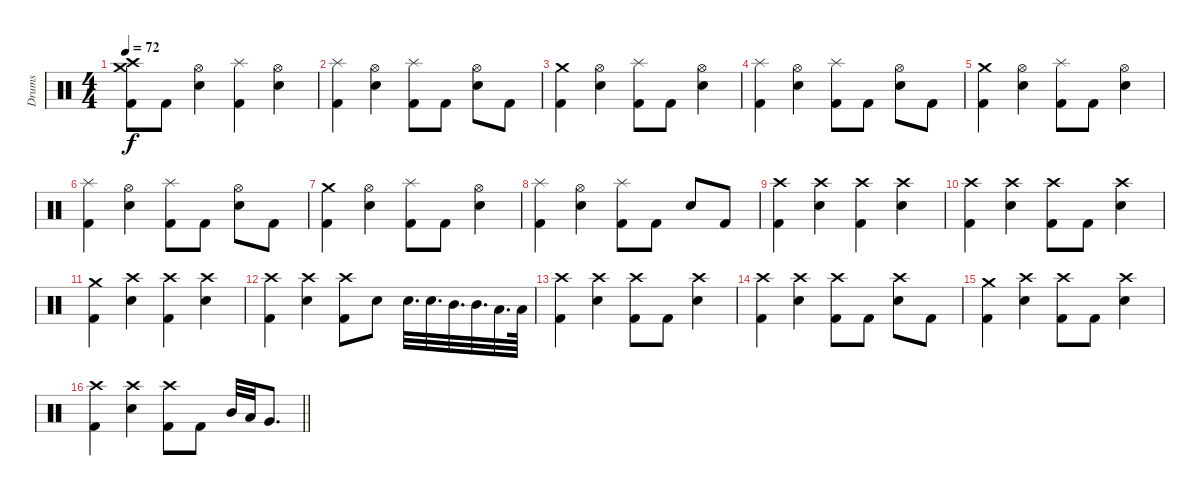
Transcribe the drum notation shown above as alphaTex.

\track ("Drums" "Drums") {instrument percussion}
\staff {score}
\articulation defaults
\ts (4 4)
\tempo 72
\clef neutral
\ks c
("Crash high (hit)" "Crash medium (hit)" "Kick (hit) 2").8{dy f} "Kick (hit) 2".8 ("Hi-Hat (open)" "Snare (hit) 2").4 ("Splash (hit)" "Kick (hit) 2").4 ("Hi-Hat (open)" "Snare (hit) 2").4 |
("Splash (hit)" "Kick (hit) 2").4 ("Hi-Hat (open)" "Snare (hit) 2").4 ("Splash (hit)" "Kick (hit) 2").8 "Kick (hit) 2".8 ("Hi-Hat (open)" "Snare (hit) 2").8 "Kick (hit) 2".8 |
("Crash medium (hit)" "Kick (hit) 2").4 ("Hi-Hat (open)" "Snare (hit) 2").4 ("Splash (hit)" "Kick (hit) 2").8 "Kick (hit) 2".8 ("Hi-Hat (open)" "Snare (hit) 2").4 |
("Splash (hit)" "Kick (hit) 2").4 ("Hi-Hat (open)" "Snare (hit) 2").4 ("Splash (hit)" "Kick (hit) 2").8 "Kick (hit) 2".8 ("Hi-Hat (open)" "Snare (hit) 2").8 "Kick (hit) 2".8 |
("Crash medium (hit)" "Kick (hit) 2").4 ("Hi-Hat (open)" "Snare (hit) 2").4 ("Splash (hit)" "Kick (hit) 2").8 "Kick (hit) 2".8 ("Hi-Hat (open)" "Snare (hit) 2").4 |
("Splash (hit)" "Kick (hit) 2").4 ("Hi-Hat (open)" "Snare (hit) 2").4 ("Splash (hit)" "Kick (hit) 2").8 "Kick (hit) 2".8 ("Hi-Hat (open)" "Snare (hit) 2").8 "Kick (hit) 2".8 |
("Crash medium (hit)" "Kick (hit) 2").4 ("Hi-Hat (open)" "Snare (hit) 2").4 ("Splash (hit)" "Kick (hit) 2").8 "Kick (hit) 2".8 ("Hi-Hat (open)" "Snare (hit) 2").4 |
("Splash (hit)" "Kick (hit) 2").4 ("Hi-Hat (open)" "Snare (hit) 2").4 ("Splash (hit)" "Kick (hit) 2").8 "Kick (hit) 2".8 "Snare (hit) 2".8 "Kick (hit) 2".8 |
("Crash high (hit)" "Kick (hit) 2").4 ("Crash high (hit)" "Snare (hit) 2").4 ("Crash high (hit)" "Kick (hit) 2").4 ("Crash high (hit)" "Snare (hit) 2").4 |
("Crash high (hit)" "Kick (hit) 2").4 ("Crash high (hit)" "Snare (hit) 2").4 ("Crash high (hit)" "Kick (hit) 2").8 "Kick (hit) 2".8 ("Crash high (hit)" "Snare (hit) 2").4 |
("Crash medium (hit)" "Kick (hit) 2").4 ("Crash high (hit)" "Snare (hit) 2").4 ("Crash high (hit)" "Kick (hit) 2").4 ("Crash high (hit)" "Snare (hit) 2").4 |
("Crash high (hit)" "Kick (hit) 2").4 ("Crash high (hit)" "Snare (hit) 2").4 ("Crash high (hit)" "Kick (hit) 2").8 "Snare (hit) 2".8 "Snare (hit) 2".32{d} "Snare (hit) 2".32{d} "Mid Tom (hit)".32{d} "Mid Tom (hit)".32{d} "Low Tom (hit)".32{d} "Low Tom (hit)".64 |
("Crash high (hit)" "Kick (hit) 2").4 ("Crash high (hit)" "Snare (hit) 2").4 ("Crash high (hit)" "Kick (hit) 2").8 "Kick (hit) 2".8 ("Crash high (hit)" "Snare (hit) 2").4 |
("Crash high (hit)" "Kick (hit) 2").4 ("Crash high (hit)" "Snare (hit) 2").4 ("Crash high (hit)" "Kick (hit) 2").8 "Kick (hit) 2".8 ("Crash high (hit)" "Snare (hit) 2").8 "Kick (hit) 2".8 |
("Crash medium (hit)" "Kick (hit) 2").4 ("Crash high (hit)" "Snare (hit) 2").4 ("Crash high (hit)" "Kick (hit) 2").8 "Kick (hit) 2".8 ("Crash high (hit)" "Snare (hit) 2").4 |
\barLineRight lightlight
("Crash high (hit)" "Kick (hit) 2").4 ("Crash high (hit)" "Snare (hit) 2").4 ("Crash high (hit)" "Kick (hit) 2").8 "Kick (hit) 2".8 "Mid Tom (hit)".32 "Low Tom (hit)".32 "Very Low Tom (hit)".8{d}
